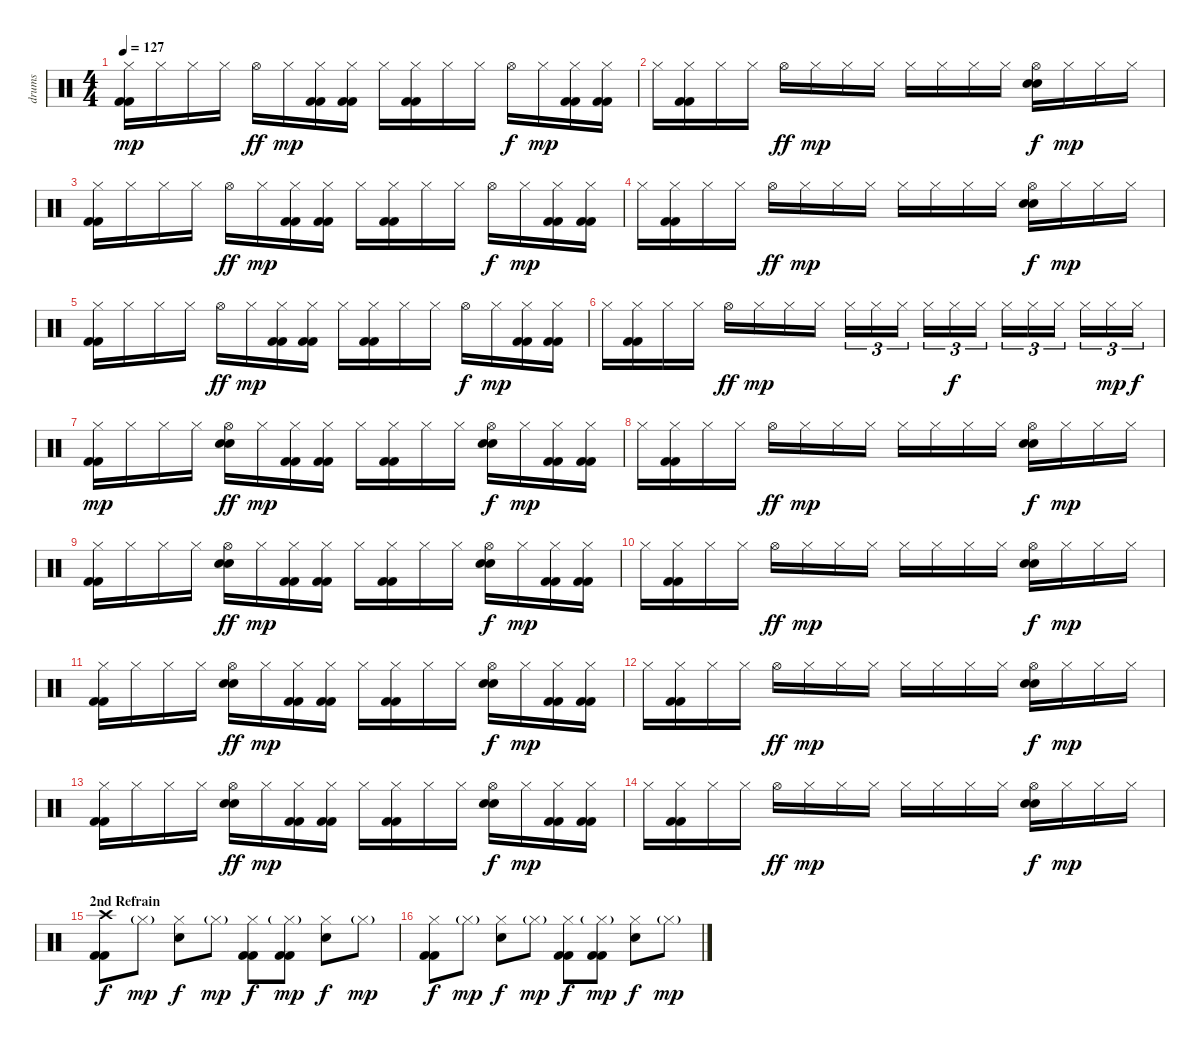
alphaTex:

\track ("drums" "drums") {instrument percussion}
\staff {score}
\articulation defaults
\ts (4 4)
\tempo 127
\clef neutral
\ks c
("Hi-Hat (closed)" "Kick (hit) 2" "Kick (hit) 2").16{dy mp} "Hi-Hat (closed)".16 "Hi-Hat (closed)".16 "Hi-Hat (closed)".16 "Hi-Hat (open)".16{dy ff} "Hi-Hat (closed)".16{dy mp} ("Hi-Hat (closed)" "Kick (hit) 2" "Kick (hit) 2").16 ("Hi-Hat (closed)" "Kick (hit) 2" "Kick (hit) 2").16 "Hi-Hat (closed)".16 ("Hi-Hat (closed)" "Kick (hit) 2" "Kick (hit) 2").16 "Hi-Hat (closed)".16 "Hi-Hat (closed)".16 "Hi-Hat (open)".16{dy f} "Hi-Hat (closed)".16{dy mp} ("Hi-Hat (closed)" "Kick (hit) 2" "Kick (hit) 2").16 ("Hi-Hat (closed)" "Kick (hit) 2" "Kick (hit) 2").16 |
"Hi-Hat (closed)".16 ("Hi-Hat (closed)" "Kick (hit) 2" "Kick (hit) 2").16 "Hi-Hat (closed)".16 "Hi-Hat (closed)".16 "Hi-Hat (open)".16{dy ff} "Hi-Hat (closed)".16{dy mp} "Hi-Hat (closed)".16 "Hi-Hat (closed)".16 "Hi-Hat (closed)".16 "Hi-Hat (closed)".16 "Hi-Hat (closed)".16 "Hi-Hat (closed)".16 ("Hi-Hat (open)" "Electric Snare (hit)" "Electric Snare (hit)").16{dy f} "Hi-Hat (closed)".16{dy mp} "Hi-Hat (closed)".16 "Hi-Hat (closed)".16 |
("Hi-Hat (closed)" "Kick (hit) 2" "Kick (hit) 2").16 "Hi-Hat (closed)".16 "Hi-Hat (closed)".16 "Hi-Hat (closed)".16 "Hi-Hat (open)".16{dy ff} "Hi-Hat (closed)".16{dy mp} ("Hi-Hat (closed)" "Kick (hit) 2" "Kick (hit) 2").16 ("Hi-Hat (closed)" "Kick (hit) 2" "Kick (hit) 2").16 "Hi-Hat (closed)".16 ("Hi-Hat (closed)" "Kick (hit) 2" "Kick (hit) 2").16 "Hi-Hat (closed)".16 "Hi-Hat (closed)".16 "Hi-Hat (open)".16{dy f} "Hi-Hat (closed)".16{dy mp} ("Hi-Hat (closed)" "Kick (hit) 2" "Kick (hit) 2").16 ("Hi-Hat (closed)" "Kick (hit) 2" "Kick (hit) 2").16 |
"Hi-Hat (closed)".16 ("Hi-Hat (closed)" "Kick (hit) 2" "Kick (hit) 2").16 "Hi-Hat (closed)".16 "Hi-Hat (closed)".16 "Hi-Hat (open)".16{dy ff} "Hi-Hat (closed)".16{dy mp} "Hi-Hat (closed)".16 "Hi-Hat (closed)".16 "Hi-Hat (closed)".16 "Hi-Hat (closed)".16 "Hi-Hat (closed)".16 "Hi-Hat (closed)".16 ("Hi-Hat (open)" "Electric Snare (hit)" "Electric Snare (hit)").16{dy f} "Hi-Hat (closed)".16{dy mp} "Hi-Hat (closed)".16 "Hi-Hat (closed)".16 |
("Hi-Hat (closed)" "Kick (hit) 2" "Kick (hit) 2").16 "Hi-Hat (closed)".16 "Hi-Hat (closed)".16 "Hi-Hat (closed)".16 "Hi-Hat (open)".16{dy ff} "Hi-Hat (closed)".16{dy mp} ("Hi-Hat (closed)" "Kick (hit) 2" "Kick (hit) 2").16 ("Hi-Hat (closed)" "Kick (hit) 2" "Kick (hit) 2").16 "Hi-Hat (closed)".16 ("Hi-Hat (closed)" "Kick (hit) 2" "Kick (hit) 2").16 "Hi-Hat (closed)".16 "Hi-Hat (closed)".16 "Hi-Hat (open)".16{dy f} "Hi-Hat (closed)".16{dy mp} ("Hi-Hat (closed)" "Kick (hit) 2" "Kick (hit) 2").16 ("Hi-Hat (closed)" "Kick (hit) 2" "Kick (hit) 2").16 |
"Hi-Hat (closed)".16 ("Hi-Hat (closed)" "Kick (hit) 2" "Kick (hit) 2").16 "Hi-Hat (closed)".16 "Hi-Hat (closed)".16 "Hi-Hat (open)".16{dy ff} "Hi-Hat (closed)".16{dy mp} "Hi-Hat (closed)".16 "Hi-Hat (closed)".16 "Hi-Hat (closed)".16{tu (3 2)} "Hi-Hat (closed)".16{tu (3 2)} "Hi-Hat (closed)".16{tu (3 2)} "Hi-Hat (closed)".16{tu (3 2)} "Hi-Hat (closed)".16{tu (3 2) dy f} "Hi-Hat (closed)".16{tu (3 2)} "Hi-Hat (closed)".16{tu (3 2)} "Hi-Hat (closed)".16{tu (3 2)} "Hi-Hat (closed)".16{tu (3 2)} "Hi-Hat (closed)".16{tu (3 2)} "Hi-Hat (closed)".16{tu (3 2) dy mp} "Hi-Hat (closed)".16{tu (3 2) dy f} |
("Hi-Hat (closed)" "Kick (hit) 2" "Kick (hit) 2").16{dy mp} "Hi-Hat (closed)".16 "Hi-Hat (closed)".16 "Hi-Hat (closed)".16 ("Hi-Hat (open)" "Electric Snare (hit)" "Electric Snare (hit)").16{dy ff} "Hi-Hat (closed)".16{dy mp} ("Hi-Hat (closed)" "Kick (hit) 2" "Kick (hit) 2").16 ("Hi-Hat (closed)" "Kick (hit) 2" "Kick (hit) 2").16 "Hi-Hat (closed)".16 ("Hi-Hat (closed)" "Kick (hit) 2" "Kick (hit) 2").16 "Hi-Hat (closed)".16 "Hi-Hat (closed)".16 ("Hi-Hat (open)" "Electric Snare (hit)" "Electric Snare (hit)").16{dy f} "Hi-Hat (closed)".16{dy mp} ("Hi-Hat (closed)" "Kick (hit) 2" "Kick (hit) 2").16 ("Hi-Hat (closed)" "Kick (hit) 2" "Kick (hit) 2").16 |
"Hi-Hat (closed)".16 ("Hi-Hat (closed)" "Kick (hit) 2" "Kick (hit) 2").16 "Hi-Hat (closed)".16 "Hi-Hat (closed)".16 "Hi-Hat (open)".16{dy ff} "Hi-Hat (closed)".16{dy mp} "Hi-Hat (closed)".16 "Hi-Hat (closed)".16 "Hi-Hat (closed)".16 "Hi-Hat (closed)".16 "Hi-Hat (closed)".16 "Hi-Hat (closed)".16 ("Hi-Hat (open)" "Electric Snare (hit)" "Electric Snare (hit)").16{dy f} "Hi-Hat (closed)".16{dy mp} "Hi-Hat (closed)".16 "Hi-Hat (closed)".16 |
("Hi-Hat (closed)" "Kick (hit) 2" "Kick (hit) 2").16 "Hi-Hat (closed)".16 "Hi-Hat (closed)".16 "Hi-Hat (closed)".16 ("Hi-Hat (open)" "Electric Snare (hit)" "Electric Snare (hit)").16{dy ff} "Hi-Hat (closed)".16{dy mp} ("Hi-Hat (closed)" "Kick (hit) 2" "Kick (hit) 2").16 ("Hi-Hat (closed)" "Kick (hit) 2" "Kick (hit) 2").16 "Hi-Hat (closed)".16 ("Hi-Hat (closed)" "Kick (hit) 2" "Kick (hit) 2").16 "Hi-Hat (closed)".16 "Hi-Hat (closed)".16 ("Hi-Hat (open)" "Electric Snare (hit)" "Electric Snare (hit)").16{dy f} "Hi-Hat (closed)".16{dy mp} ("Hi-Hat (closed)" "Kick (hit) 2" "Kick (hit) 2").16 ("Hi-Hat (closed)" "Kick (hit) 2" "Kick (hit) 2").16 |
"Hi-Hat (closed)".16 ("Hi-Hat (closed)" "Kick (hit) 2" "Kick (hit) 2").16 "Hi-Hat (closed)".16 "Hi-Hat (closed)".16 "Hi-Hat (open)".16{dy ff} "Hi-Hat (closed)".16{dy mp} "Hi-Hat (closed)".16 "Hi-Hat (closed)".16 "Hi-Hat (closed)".16 "Hi-Hat (closed)".16 "Hi-Hat (closed)".16 "Hi-Hat (closed)".16 ("Hi-Hat (open)" "Electric Snare (hit)" "Electric Snare (hit)").16{dy f} "Hi-Hat (closed)".16{dy mp} "Hi-Hat (closed)".16 "Hi-Hat (closed)".16 |
("Hi-Hat (closed)" "Kick (hit) 2" "Kick (hit) 2").16 "Hi-Hat (closed)".16 "Hi-Hat (closed)".16 "Hi-Hat (closed)".16 ("Hi-Hat (open)" "Electric Snare (hit)" "Electric Snare (hit)").16{dy ff} "Hi-Hat (closed)".16{dy mp} ("Hi-Hat (closed)" "Kick (hit) 2" "Kick (hit) 2").16 ("Hi-Hat (closed)" "Kick (hit) 2" "Kick (hit) 2").16 "Hi-Hat (closed)".16 ("Hi-Hat (closed)" "Kick (hit) 2" "Kick (hit) 2").16 "Hi-Hat (closed)".16 "Hi-Hat (closed)".16 ("Hi-Hat (open)" "Electric Snare (hit)" "Electric Snare (hit)").16{dy f} "Hi-Hat (closed)".16{dy mp} ("Hi-Hat (closed)" "Kick (hit) 2" "Kick (hit) 2").16 ("Hi-Hat (closed)" "Kick (hit) 2" "Kick (hit) 2").16 |
"Hi-Hat (closed)".16 ("Hi-Hat (closed)" "Kick (hit) 2" "Kick (hit) 2").16 "Hi-Hat (closed)".16 "Hi-Hat (closed)".16 "Hi-Hat (open)".16{dy ff} "Hi-Hat (closed)".16{dy mp} "Hi-Hat (closed)".16 "Hi-Hat (closed)".16 "Hi-Hat (closed)".16 "Hi-Hat (closed)".16 "Hi-Hat (closed)".16 "Hi-Hat (closed)".16 ("Hi-Hat (open)" "Electric Snare (hit)" "Electric Snare (hit)").16{dy f} "Hi-Hat (closed)".16{dy mp} "Hi-Hat (closed)".16 "Hi-Hat (closed)".16 |
("Hi-Hat (closed)" "Kick (hit) 2" "Kick (hit) 2").16 "Hi-Hat (closed)".16 "Hi-Hat (closed)".16 "Hi-Hat (closed)".16 ("Hi-Hat (open)" "Electric Snare (hit)" "Electric Snare (hit)").16{dy ff} "Hi-Hat (closed)".16{dy mp} ("Hi-Hat (closed)" "Kick (hit) 2" "Kick (hit) 2").16 ("Hi-Hat (closed)" "Kick (hit) 2" "Kick (hit) 2").16 "Hi-Hat (closed)".16 ("Hi-Hat (closed)" "Kick (hit) 2" "Kick (hit) 2").16 "Hi-Hat (closed)".16 "Hi-Hat (closed)".16 ("Hi-Hat (open)" "Electric Snare (hit)" "Electric Snare (hit)").16{dy f} "Hi-Hat (closed)".16{dy mp} ("Hi-Hat (closed)" "Kick (hit) 2" "Kick (hit) 2").16 ("Hi-Hat (closed)" "Kick (hit) 2" "Kick (hit) 2").16 |
"Hi-Hat (closed)".16 ("Hi-Hat (closed)" "Kick (hit) 2" "Kick (hit) 2").16 "Hi-Hat (closed)".16 "Hi-Hat (closed)".16 "Hi-Hat (open)".16{dy ff} "Hi-Hat (closed)".16{dy mp} "Hi-Hat (closed)".16 "Hi-Hat (closed)".16 "Hi-Hat (closed)".16 "Hi-Hat (closed)".16 "Hi-Hat (closed)".16 "Hi-Hat (closed)".16 ("Hi-Hat (open)" "Electric Snare (hit)" "Electric Snare (hit)").16{dy f} "Hi-Hat (closed)".16{dy mp} "Hi-Hat (closed)".16 "Hi-Hat (closed)".16 |
\section ("" "2nd Refrain")
("Crash high (hit)" "Kick (hit) 2" "Kick (hit) 2").8{dy f} "Hi-Hat (closed)"{g}.8{dy mp} ("Hi-Hat (closed)" "Electric Snare (hit)").8{dy f} "Hi-Hat (closed)"{g}.8{dy mp} ("Hi-Hat (closed)" "Kick (hit) 2" "Kick (hit) 2").8{dy f} ("Hi-Hat (closed)"{g} "Kick (hit) 2" "Kick (hit) 2").8{dy mp} ("Hi-Hat (closed)" "Electric Snare (hit)").8{dy f} "Hi-Hat (closed)"{g}.8{dy mp} |
("Hi-Hat (closed)" "Kick (hit) 2" "Kick (hit) 2").8{dy f} "Hi-Hat (closed)"{g}.8{dy mp} ("Hi-Hat (closed)" "Electric Snare (hit)").8{dy f} "Hi-Hat (closed)"{g}.8{dy mp} ("Hi-Hat (closed)" "Kick (hit) 2" "Kick (hit) 2").8{dy f} ("Hi-Hat (closed)"{g} "Kick (hit) 2" "Kick (hit) 2").8{dy mp} ("Hi-Hat (closed)" "Electric Snare (hit)").8{dy f} "Hi-Hat (closed)"{g}.8{dy mp}
